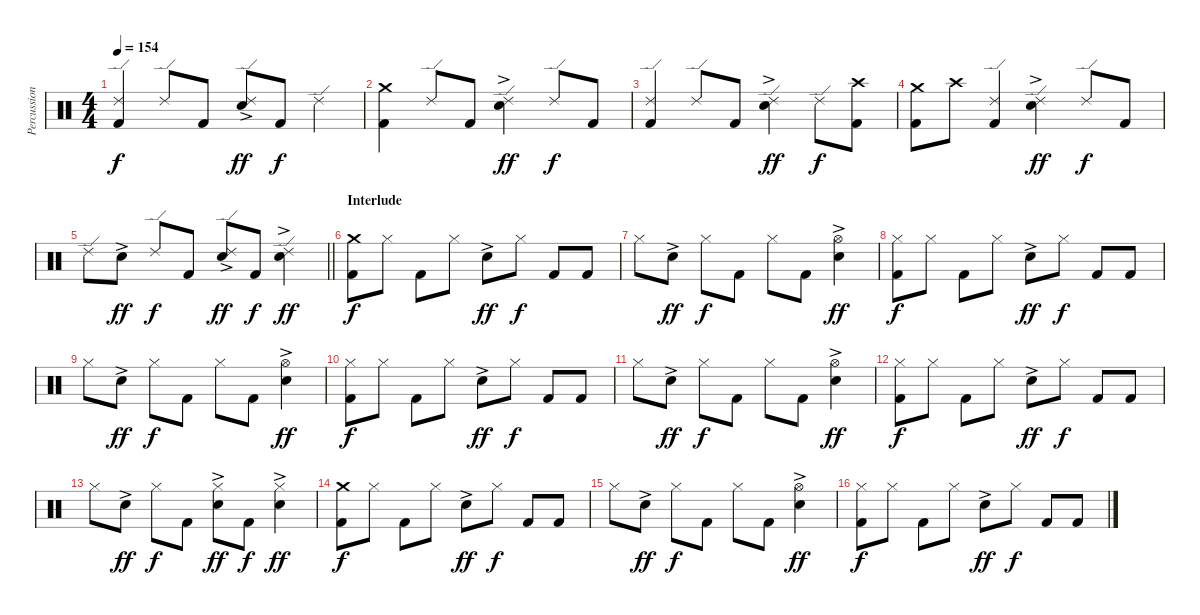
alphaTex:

\track ("Percussion" "Percussion") {instrument percussion}
\staff {score}
\articulation defaults
\ts (4 4)
\tempo 154
\clef neutral
\ks c
("Ride (edge) 2" "Kick (hit) 2").4{dy f} "Ride (edge) 2".8 "Kick (hit) 2".8 ("Ride (edge) 2" "Electric Snare (hit)"{ac}).8{dy ff} "Kick (hit) 2".8{dy f} "Ride (edge) 2".4 |
("Crash medium (hit)" "Kick (hit) 2").4 "Ride (edge) 2".8 "Kick (hit) 2".8 ("Ride (edge) 2" "Electric Snare (hit)"{ac}).4{dy ff} "Ride (edge) 2".8{dy f} "Kick (hit) 2".8 |
("Ride (edge) 2" "Kick (hit) 2").4 "Ride (edge) 2".8 "Kick (hit) 2".8 ("Ride (edge) 2" "Electric Snare (hit)"{ac}).4{dy ff} "Ride (edge) 2".8{dy f} ("Crash high (hit)" "Kick (hit) 2").8 |
("Crash medium (hit)" "Kick (hit) 2").8 "Crash high (hit)".8 ("Ride (edge) 2" "Kick (hit) 2").4 ("Ride (edge) 2" "Electric Snare (hit)"{ac}).4{dy ff} "Ride (edge) 2".8{dy f} "Kick (hit) 2".8 |
\barLineRight lightlight "Ride (edge) 2".8 "Electric Snare (hit)"{ac}.8{dy ff} "Ride (edge) 2".8{dy f} "Kick (hit) 2".8
("Ride (edge) 2" "Electric Snare (hit)"{ac}).8{dy ff} "Kick (hit) 2".8{dy f} ("Ride (edge) 2" "Electric Snare (hit)"{ac}).4{dy ff} |
\section ("" "Interlude")
("Crash medium (hit)" "Kick (hit) 2").8{dy f} "Hi-Hat (closed)".8 "Kick (hit) 2".8 "Hi-Hat (closed)".8 "Electric Snare (hit)"{ac}.8{dy ff} "Hi-Hat (closed)".8{dy f} "Kick (hit) 2".8 "Kick (hit) 2".8 |
"Hi-Hat (closed)".8 "Electric Snare (hit)"{ac}.8{dy ff} "Hi-Hat (closed)".8{dy f} "Kick (hit) 2".8 "Hi-Hat (closed)".8 "Kick (hit) 2".8 ("Hi-Hat (open)" "Electric Snare (hit)"{ac}).4{dy ff} |
("Hi-Hat (closed)" "Kick (hit) 2").8{dy f} "Hi-Hat (closed)".8 "Kick (hit) 2".8 "Hi-Hat (closed)".8 "Electric Snare (hit)"{ac}.8{dy ff} "Hi-Hat (closed)".8{dy f} "Kick (hit) 2".8 "Kick (hit) 2".8 |
"Hi-Hat (closed)".8 "Electric Snare (hit)"{ac}.8{dy ff} "Hi-Hat (closed)".8{dy f} "Kick (hit) 2".8 "Hi-Hat (closed)".8 "Kick (hit) 2".8 ("Hi-Hat (open)" "Electric Snare (hit)"{ac}).4{dy ff} |
("Hi-Hat (closed)" "Kick (hit) 2").8{dy f} "Hi-Hat (closed)".8 "Kick (hit) 2".8 "Hi-Hat (closed)".8 "Electric Snare (hit)"{ac}.8{dy ff} "Hi-Hat (closed)".8{dy f} "Kick (hit) 2".8 "Kick (hit) 2".8 |
"Hi-Hat (closed)".8 "Electric Snare (hit)"{ac}.8{dy ff} "Hi-Hat (closed)".8{dy f} "Kick (hit) 2".8 "Hi-Hat (closed)".8 "Kick (hit) 2".8 ("Hi-Hat (open)" "Electric Snare (hit)"{ac}).4{dy ff} |
("Hi-Hat (closed)" "Kick (hit) 2").8{dy f} "Hi-Hat (closed)".8 "Kick (hit) 2".8 "Hi-Hat (closed)".8 "Electric Snare (hit)"{ac}.8{dy ff} "Hi-Hat (closed)".8{dy f} "Kick (hit) 2".8 "Kick (hit) 2".8 |
"Hi-Hat (closed)".8 "Electric Snare (hit)"{ac}.8{dy ff} "Hi-Hat (closed)".8{dy f} "Kick (hit) 2".8 ("Hi-Hat (closed)" "Electric Snare (hit)"{ac}).8{dy ff} "Kick (hit) 2".8{dy f} ("Hi-Hat (closed)" "Electric Snare (hit)"{ac}).4{dy ff} |
("Crash medium (hit)" "Kick (hit) 2").8{dy f} "Hi-Hat (closed)".8 "Kick (hit) 2".8 "Hi-Hat (closed)".8 "Electric Snare (hit)"{ac}.8{dy ff} "Hi-Hat (closed)".8{dy f} "Kick (hit) 2".8 "Kick (hit) 2".8 |
"Hi-Hat (closed)".8 "Electric Snare (hit)"{ac}.8{dy ff} "Hi-Hat (closed)".8{dy f} "Kick (hit) 2".8 "Hi-Hat (closed)".8 "Kick (hit) 2".8 ("Hi-Hat (open)" "Electric Snare (hit)"{ac}).4{dy ff} |
("Hi-Hat (closed)" "Kick (hit) 2").8{dy f} "Hi-Hat (closed)".8 "Kick (hit) 2".8 "Hi-Hat (closed)".8 "Electric Snare (hit)"{ac}.8{dy ff} "Hi-Hat (closed)".8{dy f} "Kick (hit) 2".8 "Kick (hit) 2".8
